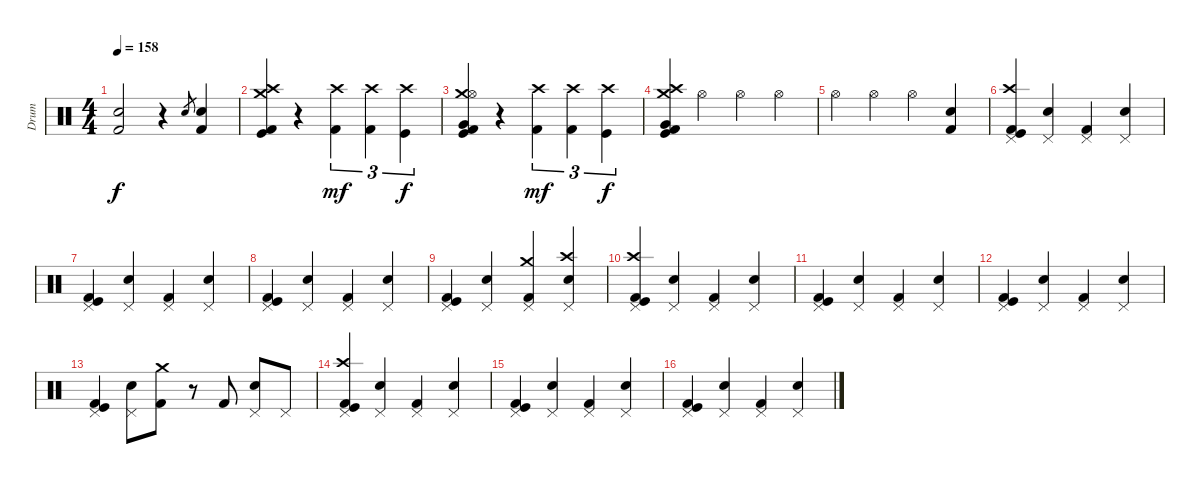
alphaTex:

\track ("Drum" "Drum") {instrument percussion}
\staff {score}
\articulation defaults
\ts (4 4)
\tempo 158
\clef neutral
\ks c
("Kick (hit) 2" "Electric Snare (hit)").2{dy f} r.4 "Electric Snare (hit)".8{gr} ("Kick (hit) 2" "Electric Snare (hit)").4 |
("Crash high (hit)" "Crash medium (hit)" "Kick (hit) 2" "Kick (hit)").4 r.4 ("Crash high (hit)" "Kick (hit) 2").4{tu (3 2) dy mf} ("Crash high (hit)" "Kick (hit) 2").4{tu (3 2)} ("Crash high (hit)" "Kick (hit)").4{tu (3 2) dy f} |
("Crash medium (hit)" "Hi-Hat (open)" "Very Low Tom (hit)" "Kick (hit)" "Kick (hit) 2").4 r.4 ("Crash high (hit)" "Kick (hit) 2").4{tu (3 2) dy mf} ("Crash high (hit)" "Kick (hit) 2").4{tu (3 2)} ("Crash high (hit)" "Kick (hit)").4{tu (3 2) dy f} |
("Very Low Tom (hit)" "Crash high (hit)" "Crash medium (hit)" "Kick (hit) 2" "Kick (hit)").4 "Hi-Hat (open)".4 "Hi-Hat (open)".4 "Hi-Hat (open)".4 |
"Hi-Hat (open)".4 "Hi-Hat (open)".4 "Hi-Hat (open)".4 ("Electric Snare (hit)" "Kick (hit) 2").4 |
("Crash high (hit)" "Kick (hit) 2" "Kick (hit)" "Pedal Hi-Hat (hit)").4 ("Pedal Hi-Hat (hit)" "Electric Snare (hit)").4 ("Kick (hit) 2" "Pedal Hi-Hat (hit)").4 ("Pedal Hi-Hat (hit)" "Electric Snare (hit)").4 |
("Kick (hit) 2" "Kick (hit)" "Pedal Hi-Hat (hit)").4 ("Pedal Hi-Hat (hit)" "Electric Snare (hit)").4 ("Kick (hit) 2" "Pedal Hi-Hat (hit)").4 ("Pedal Hi-Hat (hit)" "Electric Snare (hit)").4 |
("Kick (hit) 2" "Kick (hit)" "Pedal Hi-Hat (hit)").4 ("Pedal Hi-Hat (hit)" "Electric Snare (hit)").4 ("Kick (hit) 2" "Pedal Hi-Hat (hit)").4 ("Pedal Hi-Hat (hit)" "Electric Snare (hit)").4 |
("Kick (hit) 2" "Kick (hit)" "Pedal Hi-Hat (hit)").4 ("Pedal Hi-Hat (hit)" "Electric Snare (hit)").4 ("Crash medium (hit)" "Kick (hit) 2" "Pedal Hi-Hat (hit)").4 ("Crash high (hit)" "Pedal Hi-Hat (hit)" "Electric Snare (hit)").4 |
("Crash high (hit)" "Kick (hit) 2" "Kick (hit)" "Pedal Hi-Hat (hit)").4 ("Pedal Hi-Hat (hit)" "Electric Snare (hit)").4 ("Kick (hit) 2" "Pedal Hi-Hat (hit)").4 ("Pedal Hi-Hat (hit)" "Electric Snare (hit)").4 |
("Kick (hit) 2" "Kick (hit)" "Pedal Hi-Hat (hit)").4 ("Pedal Hi-Hat (hit)" "Electric Snare (hit)").4 ("Kick (hit) 2" "Pedal Hi-Hat (hit)").4 ("Pedal Hi-Hat (hit)" "Electric Snare (hit)").4 |
("Kick (hit) 2" "Kick (hit)" "Pedal Hi-Hat (hit)").4 ("Pedal Hi-Hat (hit)" "Electric Snare (hit)").4 ("Kick (hit) 2" "Pedal Hi-Hat (hit)").4 ("Pedal Hi-Hat (hit)" "Electric Snare (hit)").4 |
("Kick (hit) 2" "Kick (hit)" "Pedal Hi-Hat (hit)").4 ("Pedal Hi-Hat (hit)" "Electric Snare (hit)").8 ("Crash medium (hit)" "Kick (hit) 2").8 r.8 "Kick (hit) 2".8 ("Pedal Hi-Hat (hit)" "Electric Snare (hit)").8 "Pedal Hi-Hat (hit)".8 |
("Crash high (hit)" "Kick (hit) 2" "Kick (hit)" "Pedal Hi-Hat (hit)").4 ("Pedal Hi-Hat (hit)" "Electric Snare (hit)").4 ("Kick (hit) 2" "Pedal Hi-Hat (hit)").4 ("Pedal Hi-Hat (hit)" "Electric Snare (hit)").4 |
("Kick (hit) 2" "Kick (hit)" "Pedal Hi-Hat (hit)").4 ("Pedal Hi-Hat (hit)" "Electric Snare (hit)").4 ("Kick (hit) 2" "Pedal Hi-Hat (hit)").4 ("Pedal Hi-Hat (hit)" "Electric Snare (hit)").4 |
("Kick (hit) 2" "Kick (hit)" "Pedal Hi-Hat (hit)").4 ("Pedal Hi-Hat (hit)" "Electric Snare (hit)").4 ("Kick (hit) 2" "Pedal Hi-Hat (hit)").4 ("Pedal Hi-Hat (hit)" "Electric Snare (hit)").4
